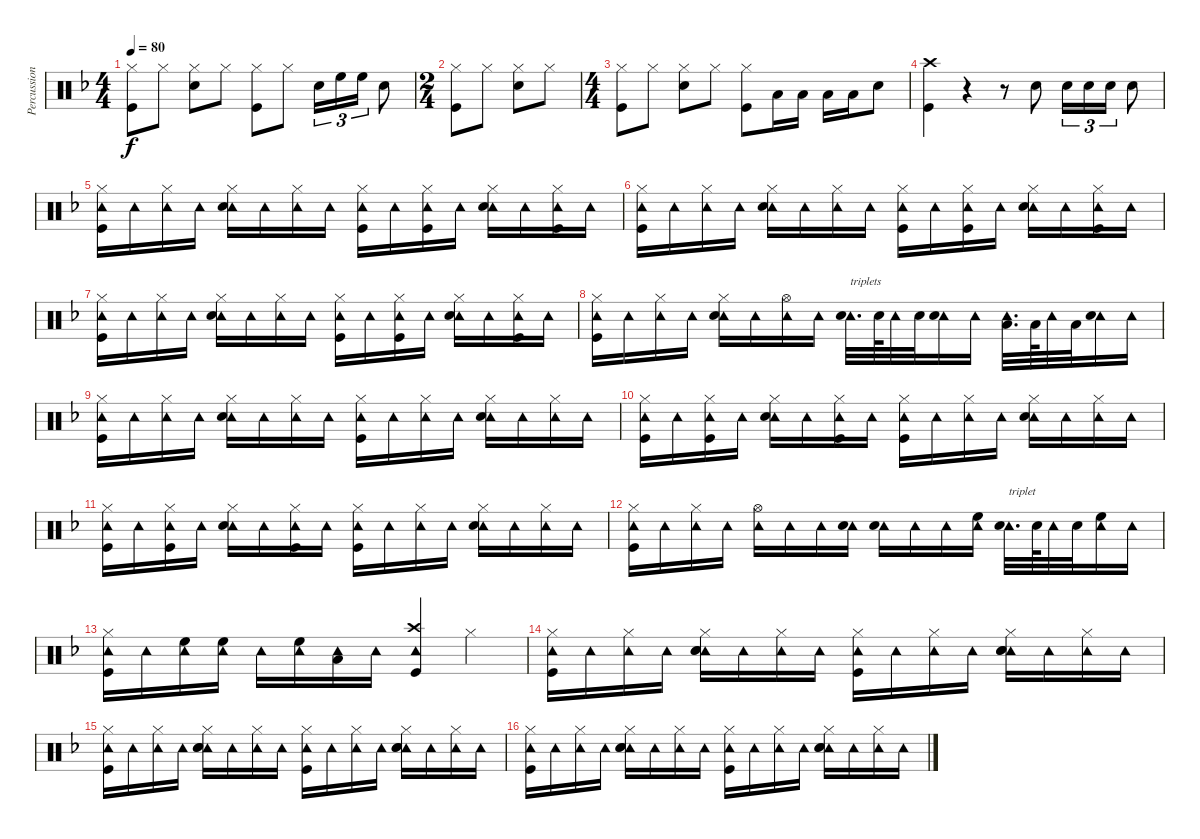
\track ("Percussion" "Percussion") {instrument percussion}
\staff {score}
\articulation defaults
\ts (4 4)
\tempo 80
\clef neutral
\ks f
("Hi-Hat (closed)" "Kick (hit)").8{dy f} "Hi-Hat (closed)".8 ("Hi-Hat (closed)" "Snare (hit) 2").8 "Hi-Hat (closed)".8 ("Hi-Hat (closed)" "Kick (hit)").8 "Hi-Hat (closed)".8 "Snare (hit) 2".16{tu (3 2)} "High Floor Tom (hit)".16{tu (3 2)} "High Floor Tom (hit)".16{tu (3 2)} "Snare (hit) 2".8 |
\ts (2 4)
("Hi-Hat (closed)" "Kick (hit)").8 "Hi-Hat (closed)".8 ("Hi-Hat (closed)" "Snare (hit) 2").8 "Hi-Hat (closed)".8 |
\ts (4 4)
("Hi-Hat (closed)" "Kick (hit)").8 "Hi-Hat (closed)".8 ("Hi-Hat (closed)" "Snare (hit) 2").8 "Hi-Hat (closed)".8 ("Hi-Hat (closed)" "Kick (hit)").8 "Low Tom (hit)".16 "Low Tom (hit)".16 "Low Tom (hit)".16 "Low Tom (hit)".16 "Snare (hit) 2".8 |
("Crash high (hit)" "Kick (hit)").4 r.4 r.8 "Snare (hit) 2".8 "Snare (hit) 2".16{tu (3 2)} "Snare (hit) 2".16{tu (3 2)} "Snare (hit) 2".16{tu (3 2)} "Snare (hit) 2".8 |
("Hi-Hat (closed)" "Tambourine (hit)" "Kick (hit)").16 "Tambourine (hit)".16 ("Hi-Hat (closed)" "Tambourine (hit)").16 "Tambourine (hit)".16 ("Hi-Hat (closed)" "Tambourine (hit)" "Snare (hit) 2").16 "Tambourine (hit)".16 ("Hi-Hat (closed)" "Tambourine (hit)").16 "Tambourine (hit)".16 ("Hi-Hat (closed)" "Tambourine (hit)" "Kick (hit)").16 "Tambourine (hit)".16 ("Hi-Hat (closed)" "Tambourine (hit)" "Kick (hit)").16 "Tambourine (hit)".16 ("Hi-Hat (closed)" "Tambourine (hit)" "Snare (hit) 2").16 "Tambourine (hit)".16 ("Hi-Hat (closed)" "Tambourine (hit)" "Kick (hit)").16 "Tambourine (hit)".16 |
("Hi-Hat (closed)" "Tambourine (hit)" "Kick (hit)").16 "Tambourine (hit)".16 ("Hi-Hat (closed)" "Tambourine (hit)").16 "Tambourine (hit)".16 ("Hi-Hat (closed)" "Tambourine (hit)" "Snare (hit) 2").16 "Tambourine (hit)".16 ("Hi-Hat (closed)" "Tambourine (hit)").16 "Tambourine (hit)".16 ("Hi-Hat (closed)" "Tambourine (hit)" "Kick (hit)").16 "Tambourine (hit)".16 ("Hi-Hat (closed)" "Tambourine (hit)" "Kick (hit)").16 "Tambourine (hit)".16 ("Hi-Hat (closed)" "Tambourine (hit)" "Snare (hit) 2").16 "Tambourine (hit)".16 ("Hi-Hat (closed)" "Tambourine (hit)" "Kick (hit)").16 "Tambourine (hit)".16 |
("Hi-Hat (closed)" "Tambourine (hit)" "Kick (hit)").16 "Tambourine (hit)".16 ("Hi-Hat (closed)" "Tambourine (hit)").16 "Tambourine (hit)".16 ("Hi-Hat (closed)" "Tambourine (hit)" "Snare (hit) 2").16 "Tambourine (hit)".16 ("Hi-Hat (closed)" "Tambourine (hit)").16 "Tambourine (hit)".16 ("Hi-Hat (closed)" "Tambourine (hit)" "Kick (hit)").16 "Tambourine (hit)".16 ("Hi-Hat (closed)" "Tambourine (hit)" "Kick (hit)").16 "Tambourine (hit)".16 ("Hi-Hat (closed)" "Tambourine (hit)" "Snare (hit) 2").16 "Tambourine (hit)".16 ("Hi-Hat (closed)" "Tambourine (hit)" "Kick (hit)").16 "Tambourine (hit)".16 |
("Hi-Hat (closed)" "Tambourine (hit)" "Kick (hit)").16 "Tambourine (hit)".16 ("Hi-Hat (closed)" "Tambourine (hit)").16 "Tambourine (hit)".16 ("Hi-Hat (closed)" "Tambourine (hit)" "Snare (hit) 2").16 "Tambourine (hit)".16 ("Hi-Hat (open)" "Tambourine (hit)").16 "Tambourine (hit)".16 ("Tambourine (hit)" "Snare (hit) 2").32{d txt "triplets"} "Snare (hit) 2".64 "Tambourine (hit)".32 "Snare (hit) 2".32 ("Tambourine (hit)" "Snare (hit) 2").16 "Tambourine (hit)".16 ("Tambourine (hit)" "Low Tom (hit)").32{d} "Low Tom (hit)".64 "Tambourine (hit)".32 "Low Tom (hit)".32 ("Tambourine (hit)" "Snare (hit) 2").16 "Tambourine (hit)".16 |
("Hi-Hat (closed)" "Tambourine (hit)" "Kick (hit)").16 "Tambourine (hit)".16 ("Hi-Hat (closed)" "Tambourine (hit)").16 "Tambourine (hit)".16 ("Hi-Hat (closed)" "Tambourine (hit)" "Snare (hit) 2").16 "Tambourine (hit)".16 ("Hi-Hat (closed)" "Tambourine (hit)").16 "Tambourine (hit)".16 ("Hi-Hat (closed)" "Tambourine (hit)" "Kick (hit)").16 "Tambourine (hit)".16 ("Hi-Hat (closed)" "Tambourine (hit)").16 "Tambourine (hit)".16 ("Hi-Hat (closed)" "Tambourine (hit)" "Snare (hit) 2").16 "Tambourine (hit)".16 ("Hi-Hat (closed)" "Tambourine (hit)").16 "Tambourine (hit)".16 |
("Hi-Hat (closed)" "Tambourine (hit)" "Kick (hit)").16 "Tambourine (hit)".16 ("Hi-Hat (closed)" "Tambourine (hit)" "Kick (hit)").16 "Tambourine (hit)".16 ("Hi-Hat (closed)" "Tambourine (hit)" "Snare (hit) 2").16 "Tambourine (hit)".16 ("Hi-Hat (closed)" "Tambourine (hit)" "Kick (hit)").16 "Tambourine (hit)".16 ("Hi-Hat (closed)" "Tambourine (hit)" "Kick (hit)").16 "Tambourine (hit)".16 ("Hi-Hat (closed)" "Tambourine (hit)").16 "Tambourine (hit)".16 ("Hi-Hat (closed)" "Tambourine (hit)" "Snare (hit) 2").16 "Tambourine (hit)".16 ("Hi-Hat (closed)" "Tambourine (hit)").16 "Tambourine (hit)".16 |
("Hi-Hat (closed)" "Tambourine (hit)" "Kick (hit)").16 "Tambourine (hit)".16 ("Hi-Hat (closed)" "Tambourine (hit)" "Kick (hit)").16 "Tambourine (hit)".16 ("Hi-Hat (closed)" "Tambourine (hit)" "Snare (hit) 2").16 "Tambourine (hit)".16 ("Hi-Hat (closed)" "Tambourine (hit)" "Kick (hit)").16 "Tambourine (hit)".16 ("Hi-Hat (closed)" "Tambourine (hit)" "Kick (hit)").16 "Tambourine (hit)".16 ("Hi-Hat (closed)" "Tambourine (hit)").16 "Tambourine (hit)".16 ("Hi-Hat (closed)" "Tambourine (hit)" "Snare (hit) 2").16 "Tambourine (hit)".16 ("Hi-Hat (closed)" "Tambourine (hit)").16 "Tambourine (hit)".16 |
("Hi-Hat (closed)" "Tambourine (hit)" "Kick (hit)").16 "Tambourine (hit)".16 ("Hi-Hat (closed)" "Tambourine (hit)").16 "Tambourine (hit)".16 ("Hi-Hat (open)" "Tambourine (hit)").16 "Tambourine (hit)".16 "Tambourine (hit)".16 ("Tambourine (hit)" "Snare (hit) 2").16 ("Tambourine (hit)" "Snare (hit) 2").16 "Tambourine (hit)".16 "Tambourine (hit)".16 ("Tambourine (hit)" "High Floor Tom (hit)").16 ("Tambourine (hit)" "Snare (hit) 2").32{d txt "triplet"} "Snare (hit) 2".64 "Tambourine (hit)".32 "Snare (hit) 2".32 ("Tambourine (hit)" "High Floor Tom (hit)").16 "Tambourine (hit)".16 |
("Hi-Hat (closed)" "Tambourine (hit)" "Kick (hit)").16 "Tambourine (hit)".16 ("Tambourine (hit)" "High Floor Tom (hit)").16 ("Tambourine (hit)" "High Floor Tom (hit)").16 "Tambourine (hit)".16 ("Tambourine (hit)" "High Floor Tom (hit)").16 ("Tambourine (hit)" "Low Tom (hit)").16 "Tambourine (hit)".16 ("Crash high (hit)" "Tambourine (hit)" "Kick (hit)").4 "Hi-Hat (closed)".4 |
("Hi-Hat (closed)" "Tambourine (hit)" "Kick (hit)").16 "Tambourine (hit)".16 ("Hi-Hat (closed)" "Tambourine (hit)").16 "Tambourine (hit)".16 ("Hi-Hat (closed)" "Tambourine (hit)" "Snare (hit) 2" "Hand Clap (hit)").16 "Tambourine (hit)".16 ("Hi-Hat (closed)" "Tambourine (hit)").16 "Tambourine (hit)".16 ("Hi-Hat (closed)" "Tambourine (hit)" "Kick (hit)").16 "Tambourine (hit)".16 ("Hi-Hat (closed)" "Tambourine (hit)").16 "Tambourine (hit)".16 ("Hi-Hat (closed)" "Tambourine (hit)" "Snare (hit) 2" "Hand Clap (hit)").16 "Tambourine (hit)".16 ("Hi-Hat (closed)" "Tambourine (hit)").16 "Tambourine (hit)".16 |
("Hi-Hat (closed)" "Tambourine (hit)" "Kick (hit)").16 "Tambourine (hit)".16 ("Hi-Hat (closed)" "Tambourine (hit)").16 "Tambourine (hit)".16 ("Hi-Hat (closed)" "Tambourine (hit)" "Snare (hit) 2" "Hand Clap (hit)").16 "Tambourine (hit)".16 ("Hi-Hat (closed)" "Tambourine (hit)").16 "Tambourine (hit)".16 ("Hi-Hat (closed)" "Tambourine (hit)" "Kick (hit)").16 "Tambourine (hit)".16 ("Hi-Hat (closed)" "Tambourine (hit)").16 "Tambourine (hit)".16 ("Hi-Hat (closed)" "Tambourine (hit)" "Snare (hit) 2" "Hand Clap (hit)").16 "Tambourine (hit)".16 ("Hi-Hat (closed)" "Tambourine (hit)").16 "Tambourine (hit)".16 |
("Hi-Hat (closed)" "Tambourine (hit)" "Kick (hit)").16 "Tambourine (hit)".16 ("Hi-Hat (closed)" "Tambourine (hit)").16 "Tambourine (hit)".16 ("Hi-Hat (closed)" "Tambourine (hit)" "Snare (hit) 2" "Hand Clap (hit)").16 "Tambourine (hit)".16 ("Hi-Hat (closed)" "Tambourine (hit)").16 "Tambourine (hit)".16 ("Hi-Hat (closed)" "Tambourine (hit)" "Kick (hit)").16 "Tambourine (hit)".16 ("Hi-Hat (closed)" "Tambourine (hit)").16 "Tambourine (hit)".16 ("Hi-Hat (closed)" "Tambourine (hit)" "Snare (hit) 2" "Hand Clap (hit)").16 "Tambourine (hit)".16 ("Hi-Hat (closed)" "Tambourine (hit)").16 "Tambourine (hit)".16
